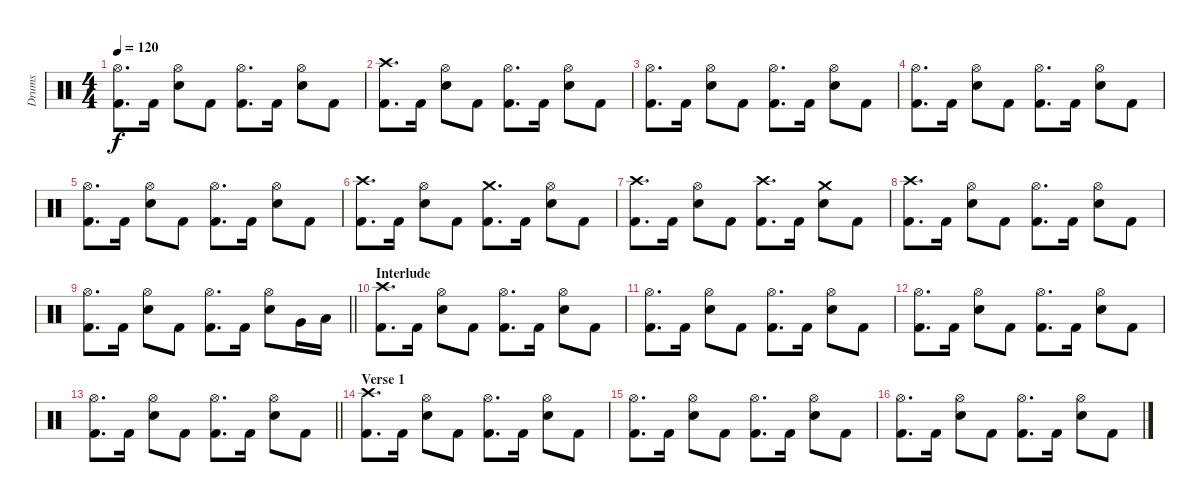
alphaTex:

\track ("Drums" "Drums") {instrument percussion}
\staff {score}
\articulation defaults
\ts (4 4)
\tempo 120
\clef neutral
\ks c
("Hi-Hat (open)" "Kick (hit) 2").8{d dy f} "Kick (hit) 2".16 ("Hi-Hat (open)" "Snare (hit) 2").8 "Kick (hit) 2".8 ("Hi-Hat (open)" "Kick (hit) 2").8{d} "Kick (hit) 2".16 ("Hi-Hat (open)" "Snare (hit) 2").8 "Kick (hit) 2".8 |
("Crash high (hit)" "Kick (hit) 2").8{d} "Kick (hit) 2".16 ("Hi-Hat (open)" "Snare (hit) 2").8 "Kick (hit) 2".8 ("Hi-Hat (open)" "Kick (hit) 2").8{d} "Kick (hit) 2".16 ("Hi-Hat (open)" "Snare (hit) 2").8 "Kick (hit) 2".8 |
("Hi-Hat (open)" "Kick (hit) 2").8{d} "Kick (hit) 2".16 ("Hi-Hat (open)" "Snare (hit) 2").8 "Kick (hit) 2".8 ("Hi-Hat (open)" "Kick (hit) 2").8{d} "Kick (hit) 2".16 ("Hi-Hat (open)" "Snare (hit) 2").8 "Kick (hit) 2".8 |
("Hi-Hat (open)" "Kick (hit) 2").8{d} "Kick (hit) 2".16 ("Hi-Hat (open)" "Snare (hit) 2").8 "Kick (hit) 2".8 ("Hi-Hat (open)" "Kick (hit) 2").8{d} "Kick (hit) 2".16 ("Hi-Hat (open)" "Snare (hit) 2").8 "Kick (hit) 2".8 |
("Hi-Hat (open)" "Kick (hit) 2").8{d} "Kick (hit) 2".16 ("Hi-Hat (open)" "Snare (hit) 2").8 "Kick (hit) 2".8 ("Hi-Hat (open)" "Kick (hit) 2").8{d} "Kick (hit) 2".16 ("Hi-Hat (open)" "Snare (hit) 2").8 "Kick (hit) 2".8 |
("Crash high (hit)" "Kick (hit) 2").8{d} "Kick (hit) 2".16 ("Hi-Hat (open)" "Snare (hit) 2").8 "Kick (hit) 2".8 ("Crash medium (hit)" "Kick (hit) 2").8{d} "Kick (hit) 2".16 ("Hi-Hat (open)" "Snare (hit) 2").8 "Kick (hit) 2".8 |
("Crash high (hit)" "Kick (hit) 2").8{d} "Kick (hit) 2".16 ("Hi-Hat (open)" "Snare (hit) 2").8 "Kick (hit) 2".8 ("Crash high (hit)" "Kick (hit) 2").8{d} "Kick (hit) 2".16 ("Crash medium (hit)" "Snare (hit) 2").8 "Kick (hit) 2".8 |
("Crash high (hit)" "Kick (hit) 2").8{d} "Kick (hit) 2".16 ("Hi-Hat (open)" "Snare (hit) 2").8 "Kick (hit) 2".8 ("Hi-Hat (open)" "Kick (hit) 2").8{d} "Kick (hit) 2".16 ("Hi-Hat (open)" "Snare (hit) 2").8 "Kick (hit) 2".8 |
\barLineRight lightlight
("Hi-Hat (open)" "Kick (hit) 2").8{d} "Kick (hit) 2".16 ("Hi-Hat (open)" "Snare (hit) 2").8 "Kick (hit) 2".8 ("Hi-Hat (open)" "Kick (hit) 2").8{d} "Kick (hit) 2".16 ("Hi-Hat (open)" "Snare (hit) 2").8 "Very Low Tom (hit)".16 "Low Floor Tom (hit)".16 |
\section ("" "Interlude")
("Crash high (hit)" "Kick (hit) 2").8{d} "Kick (hit) 2".16 ("Hi-Hat (open)" "Snare (hit) 2").8 "Kick (hit) 2".8 ("Hi-Hat (open)" "Kick (hit) 2").8{d} "Kick (hit) 2".16 ("Hi-Hat (open)" "Snare (hit) 2").8 "Kick (hit) 2".8 |
("Hi-Hat (open)" "Kick (hit) 2").8{d} "Kick (hit) 2".16 ("Hi-Hat (open)" "Snare (hit) 2").8 "Kick (hit) 2".8 ("Hi-Hat (open)" "Kick (hit) 2").8{d} "Kick (hit) 2".16 ("Hi-Hat (open)" "Snare (hit) 2").8 "Kick (hit) 2".8 |
("Hi-Hat (open)" "Kick (hit) 2").8{d} "Kick (hit) 2".16 ("Hi-Hat (open)" "Snare (hit) 2").8 "Kick (hit) 2".8 ("Hi-Hat (open)" "Kick (hit) 2").8{d} "Kick (hit) 2".16 ("Hi-Hat (open)" "Snare (hit) 2").8 "Kick (hit) 2".8 |
\barLineRight lightlight
("Hi-Hat (open)" "Kick (hit) 2").8{d} "Kick (hit) 2".16 ("Hi-Hat (open)" "Snare (hit) 2").8 "Kick (hit) 2".8 ("Hi-Hat (open)" "Kick (hit) 2").8{d} "Kick (hit) 2".16 ("Hi-Hat (open)" "Snare (hit) 2").8 "Kick (hit) 2".8 |
\section ("" "Verse 1")
("Crash high (hit)" "Kick (hit) 2").8{d} "Kick (hit) 2".16 ("Hi-Hat (open)" "Snare (hit) 2").8 "Kick (hit) 2".8 ("Hi-Hat (open)" "Kick (hit) 2").8{d} "Kick (hit) 2".16 ("Hi-Hat (open)" "Snare (hit) 2").8 "Kick (hit) 2".8 |
("Hi-Hat (open)" "Kick (hit) 2").8{d} "Kick (hit) 2".16 ("Hi-Hat (open)" "Snare (hit) 2").8 "Kick (hit) 2".8 ("Hi-Hat (open)" "Kick (hit) 2").8{d} "Kick (hit) 2".16 ("Hi-Hat (open)" "Snare (hit) 2").8 "Kick (hit) 2".8 |
("Hi-Hat (open)" "Kick (hit) 2").8{d} "Kick (hit) 2".16 ("Hi-Hat (open)" "Snare (hit) 2").8 "Kick (hit) 2".8 ("Hi-Hat (open)" "Kick (hit) 2").8{d} "Kick (hit) 2".16 ("Hi-Hat (open)" "Snare (hit) 2").8 "Kick (hit) 2".8
